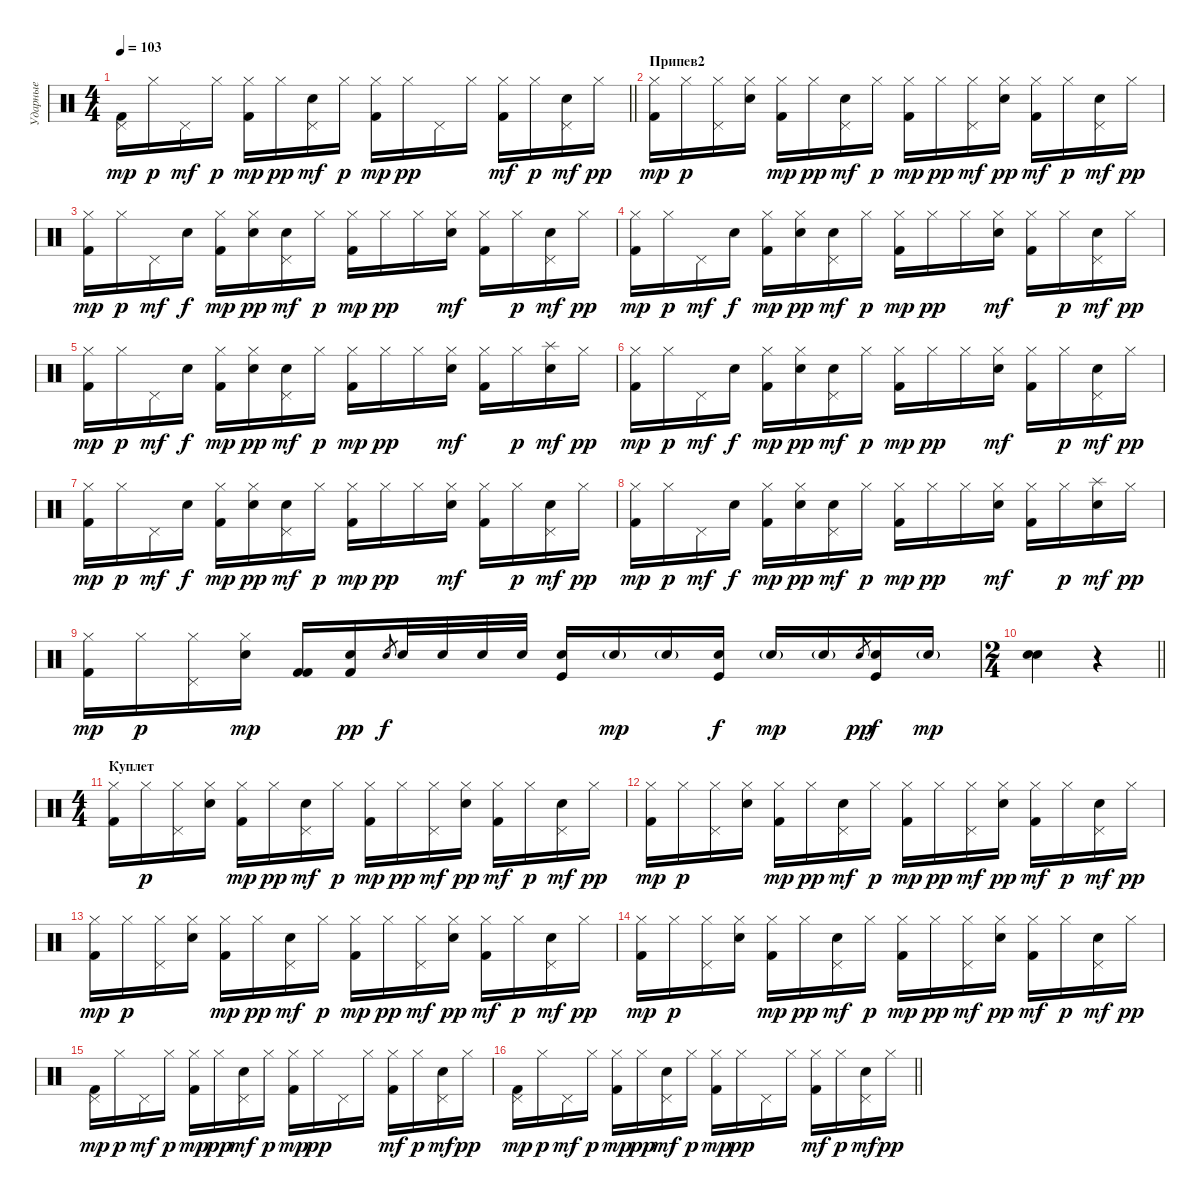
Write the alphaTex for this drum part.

\track ("Ударные" "Ударные") {instrument percussion}
\staff {score}
\articulation defaults
\ts (4 4)
\tempo 103
\clef neutral
\barLineRight lightlight
\ks c
("Pedal Hi-Hat (hit)" "Kick (hit) 2").16{dy mp} "Hi-Hat (closed)".16{dy p} "Pedal Hi-Hat (hit)".16{dy mf} "Hi-Hat (closed)".16{dy p} ("Kick (hit) 2" "Hi-Hat (closed)").16{dy mp} "Hi-Hat (closed)".16{dy pp} ("Electric Snare (hit)" "Pedal Hi-Hat (hit)").16{dy mf} "Hi-Hat (closed)".16{dy p} ("Hi-Hat (closed)" "Kick (hit) 2").16{dy mp} "Hi-Hat (closed)".16{dy pp} "Pedal Hi-Hat (hit)".16 "Hi-Hat (closed)".16 ("Hi-Hat (closed)" "Kick (hit) 2").16{dy mf} "Hi-Hat (closed)".16{dy p} ("Electric Snare (hit)" "Pedal Hi-Hat (hit)").16{dy mf} "Hi-Hat (closed)".16{dy pp} |
\section ("" "Припев2")
("Hi-Hat (closed)" "Kick (hit) 2").16{dy mp} "Hi-Hat (closed)".16{dy p} ("Pedal Hi-Hat (hit)" "Hi-Hat (closed)").16 ("Electric Snare (hit)" "Hi-Hat (closed)").16 ("Kick (hit) 2" "Hi-Hat (closed)").16{dy mp} "Hi-Hat (closed)".16{dy pp} ("Electric Snare (hit)" "Pedal Hi-Hat (hit)").16{dy mf} "Hi-Hat (closed)".16{dy p} ("Hi-Hat (closed)" "Kick (hit) 2").16{dy mp} "Hi-Hat (closed)".16{dy pp} ("Hi-Hat (closed)" "Pedal Hi-Hat (hit)").16{dy mf} ("Electric Snare (hit)" "Hi-Hat (closed)").16{dy pp} ("Hi-Hat (closed)" "Kick (hit) 2").16{dy mf} "Hi-Hat (closed)".16{dy p} ("Electric Snare (hit)" "Pedal Hi-Hat (hit)").16{dy mf} "Hi-Hat (closed)".16{dy pp} |
("Hi-Hat (closed)" "Kick (hit) 2").16{dy mp} "Hi-Hat (closed)".16{dy p} "Pedal Hi-Hat (hit)".16{dy mf} "Electric Snare (hit)".16{dy f} ("Kick (hit) 2" "Hi-Hat (closed)").16{dy mp} ("Electric Snare (hit)" "Hi-Hat (closed)").16{dy pp} ("Electric Snare (hit)" "Pedal Hi-Hat (hit)").16{dy mf} "Hi-Hat (closed)".16{dy p} ("Hi-Hat (closed)" "Kick (hit) 2").16{dy mp} "Hi-Hat (closed)".16{dy pp} "Hi-Hat (closed)".16 ("Electric Snare (hit)" "Hi-Hat (closed)").16{dy mf} ("Hi-Hat (closed)" "Kick (hit) 2").16 "Hi-Hat (closed)".16{dy p} ("Electric Snare (hit)" "Pedal Hi-Hat (hit)").16{dy mf} "Hi-Hat (closed)".16{dy pp} |
("Hi-Hat (closed)" "Kick (hit) 2").16{dy mp} "Hi-Hat (closed)".16{dy p} "Pedal Hi-Hat (hit)".16{dy mf} "Electric Snare (hit)".16{dy f} ("Kick (hit) 2" "Hi-Hat (closed)").16{dy mp} ("Electric Snare (hit)" "Hi-Hat (closed)").16{dy pp} ("Electric Snare (hit)" "Pedal Hi-Hat (hit)").16{dy mf} "Hi-Hat (closed)".16{dy p} ("Hi-Hat (closed)" "Kick (hit) 2").16{dy mp} "Hi-Hat (closed)".16{dy pp} "Hi-Hat (closed)".16 ("Electric Snare (hit)" "Hi-Hat (closed)").16{dy mf} ("Hi-Hat (closed)" "Kick (hit) 2").16 "Hi-Hat (closed)".16{dy p} ("Electric Snare (hit)" "Pedal Hi-Hat (hit)").16{dy mf} "Hi-Hat (closed)".16{dy pp} |
("Hi-Hat (closed)" "Kick (hit) 2").16{dy mp} "Hi-Hat (closed)".16{dy p} "Pedal Hi-Hat (hit)".16{dy mf} "Electric Snare (hit)".16{dy f} ("Kick (hit) 2" "Hi-Hat (closed)").16{dy mp} ("Electric Snare (hit)" "Hi-Hat (closed)").16{dy pp} ("Electric Snare (hit)" "Pedal Hi-Hat (hit)").16{dy mf} "Hi-Hat (closed)".16{dy p} ("Hi-Hat (closed)" "Kick (hit) 2").16{dy mp} "Hi-Hat (closed)".16{dy pp} "Hi-Hat (closed)".16 ("Electric Snare (hit)" "Hi-Hat (closed)").16{dy mf} ("Hi-Hat (closed)" "Kick (hit) 2").16 "Hi-Hat (closed)".16{dy p} ("Electric Snare (hit)" "Splash (hit)").16{dy mf} "Hi-Hat (closed)".16{dy pp} |
("Hi-Hat (closed)" "Kick (hit) 2").16{dy mp} "Hi-Hat (closed)".16{dy p} "Pedal Hi-Hat (hit)".16{dy mf} "Electric Snare (hit)".16{dy f} ("Kick (hit) 2" "Hi-Hat (closed)").16{dy mp} ("Electric Snare (hit)" "Hi-Hat (closed)").16{dy pp} ("Electric Snare (hit)" "Pedal Hi-Hat (hit)").16{dy mf} "Hi-Hat (closed)".16{dy p} ("Hi-Hat (closed)" "Kick (hit) 2").16{dy mp} "Hi-Hat (closed)".16{dy pp} "Hi-Hat (closed)".16 ("Electric Snare (hit)" "Hi-Hat (closed)").16{dy mf} ("Hi-Hat (closed)" "Kick (hit) 2").16 "Hi-Hat (closed)".16{dy p} ("Electric Snare (hit)" "Pedal Hi-Hat (hit)").16{dy mf} "Hi-Hat (closed)".16{dy pp} |
("Hi-Hat (closed)" "Kick (hit) 2").16{dy mp} "Hi-Hat (closed)".16{dy p} "Pedal Hi-Hat (hit)".16{dy mf} "Electric Snare (hit)".16{dy f} ("Kick (hit) 2" "Hi-Hat (closed)").16{dy mp} ("Electric Snare (hit)" "Hi-Hat (closed)").16{dy pp} ("Electric Snare (hit)" "Pedal Hi-Hat (hit)").16{dy mf} "Hi-Hat (closed)".16{dy p} ("Hi-Hat (closed)" "Kick (hit) 2").16{dy mp} "Hi-Hat (closed)".16{dy pp} "Hi-Hat (closed)".16 ("Electric Snare (hit)" "Hi-Hat (closed)").16{dy mf} ("Hi-Hat (closed)" "Kick (hit) 2").16 "Hi-Hat (closed)".16{dy p} ("Electric Snare (hit)" "Pedal Hi-Hat (hit)").16{dy mf} "Hi-Hat (closed)".16{dy pp} |
("Hi-Hat (closed)" "Kick (hit) 2").16{dy mp} "Hi-Hat (closed)".16{dy p} "Pedal Hi-Hat (hit)".16{dy mf} "Electric Snare (hit)".16{dy f} ("Kick (hit) 2" "Hi-Hat (closed)").16{dy mp} ("Electric Snare (hit)" "Hi-Hat (closed)").16{dy pp} ("Electric Snare (hit)" "Pedal Hi-Hat (hit)").16{dy mf} "Hi-Hat (closed)".16{dy p} ("Hi-Hat (closed)" "Kick (hit) 2").16{dy mp} "Hi-Hat (closed)".16{dy pp} "Hi-Hat (closed)".16 ("Electric Snare (hit)" "Hi-Hat (closed)").16{dy mf} ("Hi-Hat (closed)" "Kick (hit) 2").16 "Hi-Hat (closed)".16{dy p} ("Electric Snare (hit)" "Splash (hit)").16{dy mf} "Hi-Hat (closed)".16{dy pp} |
("Hi-Hat (closed)" "Kick (hit) 2").16{dy mp} "Hi-Hat (closed)".16{dy p} ("Pedal Hi-Hat (hit)" "Hi-Hat (closed)").16 ("Electric Snare (hit)" "Hi-Hat (closed)").16{dy mp} ("Kick (hit) 2" "Kick (hit) 2").16 ("Electric Snare (hit)" "Kick (hit) 2").16{dy pp} "Electric Snare (hit)".8{gr dy f} "Electric Snare (hit)".32 "Electric Snare (hit)".32 "Electric Snare (hit)".32 "Electric Snare (hit)".32 ("Electric Snare (hit)" "Kick (hit)").16 "Electric Snare (hit)"{g}.16{dy mp} "Electric Snare (hit)"{g}.16 ("Electric Snare (hit)" "Kick (hit)").16{dy f} "Electric Snare (hit)"{g}.16{dy mp} "Electric Snare (hit)"{g}.16 "Electric Snare (hit)".8{gr dy pp} ("Electric Snare (hit)" "Kick (hit)").16{dy f} "Electric Snare (hit)"{g}.16{dy mp} |
\ts (2 4)
\barLineRight lightlight
("Electric Snare (hit)" "Electric Snare (hit)").4 r.4 |
\ts (4 4)
\section ("" "Куплет")
("Hi-Hat (closed)" "Kick (hit) 2").16 "Hi-Hat (closed)".16{dy p} ("Pedal Hi-Hat (hit)" "Hi-Hat (closed)").16 ("Electric Snare (hit)" "Hi-Hat (closed)").16 ("Kick (hit) 2" "Hi-Hat (closed)").16{dy mp} "Hi-Hat (closed)".16{dy pp} ("Electric Snare (hit)" "Pedal Hi-Hat (hit)").16{dy mf} "Hi-Hat (closed)".16{dy p} ("Hi-Hat (closed)" "Kick (hit) 2").16{dy mp} "Hi-Hat (closed)".16{dy pp} ("Hi-Hat (closed)" "Pedal Hi-Hat (hit)").16{dy mf} ("Electric Snare (hit)" "Hi-Hat (closed)").16{dy pp} ("Hi-Hat (closed)" "Kick (hit) 2").16{dy mf} "Hi-Hat (closed)".16{dy p} ("Electric Snare (hit)" "Pedal Hi-Hat (hit)").16{dy mf} "Hi-Hat (closed)".16{dy pp} |
("Hi-Hat (closed)" "Kick (hit) 2").16{dy mp} "Hi-Hat (closed)".16{dy p} ("Pedal Hi-Hat (hit)" "Hi-Hat (closed)").16 ("Electric Snare (hit)" "Hi-Hat (closed)").16 ("Kick (hit) 2" "Hi-Hat (closed)").16{dy mp} "Hi-Hat (closed)".16{dy pp} ("Electric Snare (hit)" "Pedal Hi-Hat (hit)").16{dy mf} "Hi-Hat (closed)".16{dy p} ("Hi-Hat (closed)" "Kick (hit) 2").16{dy mp} "Hi-Hat (closed)".16{dy pp} ("Hi-Hat (closed)" "Pedal Hi-Hat (hit)").16{dy mf} ("Electric Snare (hit)" "Hi-Hat (closed)").16{dy pp} ("Hi-Hat (closed)" "Kick (hit) 2").16{dy mf} "Hi-Hat (closed)".16{dy p} ("Electric Snare (hit)" "Pedal Hi-Hat (hit)").16{dy mf} "Hi-Hat (closed)".16{dy pp} |
("Hi-Hat (closed)" "Kick (hit) 2").16{dy mp} "Hi-Hat (closed)".16{dy p} ("Pedal Hi-Hat (hit)" "Hi-Hat (closed)").16 ("Electric Snare (hit)" "Hi-Hat (closed)").16 ("Kick (hit) 2" "Hi-Hat (closed)").16{dy mp} "Hi-Hat (closed)".16{dy pp} ("Electric Snare (hit)" "Pedal Hi-Hat (hit)").16{dy mf} "Hi-Hat (closed)".16{dy p} ("Hi-Hat (closed)" "Kick (hit) 2").16{dy mp} "Hi-Hat (closed)".16{dy pp} ("Hi-Hat (closed)" "Pedal Hi-Hat (hit)").16{dy mf} ("Electric Snare (hit)" "Hi-Hat (closed)").16{dy pp} ("Hi-Hat (closed)" "Kick (hit) 2").16{dy mf} "Hi-Hat (closed)".16{dy p} ("Electric Snare (hit)" "Pedal Hi-Hat (hit)").16{dy mf} "Hi-Hat (closed)".16{dy pp} |
("Hi-Hat (closed)" "Kick (hit) 2").16{dy mp} "Hi-Hat (closed)".16{dy p} ("Pedal Hi-Hat (hit)" "Hi-Hat (closed)").16 ("Electric Snare (hit)" "Hi-Hat (closed)").16 ("Kick (hit) 2" "Hi-Hat (closed)").16{dy mp} "Hi-Hat (closed)".16{dy pp} ("Electric Snare (hit)" "Pedal Hi-Hat (hit)").16{dy mf} "Hi-Hat (closed)".16{dy p} ("Hi-Hat (closed)" "Kick (hit) 2").16{dy mp} "Hi-Hat (closed)".16{dy pp} ("Hi-Hat (closed)" "Pedal Hi-Hat (hit)").16{dy mf} ("Electric Snare (hit)" "Hi-Hat (closed)").16{dy pp} ("Hi-Hat (closed)" "Kick (hit) 2").16{dy mf} "Hi-Hat (closed)".16{dy p} ("Electric Snare (hit)" "Pedal Hi-Hat (hit)").16{dy mf} "Hi-Hat (closed)".16{dy pp} |
("Pedal Hi-Hat (hit)" "Kick (hit) 2").16{dy mp} "Hi-Hat (closed)".16{dy p} "Pedal Hi-Hat (hit)".16{dy mf} "Hi-Hat (closed)".16{dy p} ("Kick (hit) 2" "Hi-Hat (closed)").16{dy mp} "Hi-Hat (closed)".16{dy pp} ("Electric Snare (hit)" "Pedal Hi-Hat (hit)").16{dy mf} "Hi-Hat (closed)".16{dy p} ("Hi-Hat (closed)" "Kick (hit) 2").16{dy mp} "Hi-Hat (closed)".16{dy pp} "Pedal Hi-Hat (hit)".16 "Hi-Hat (closed)".16 ("Hi-Hat (closed)" "Kick (hit) 2").16{dy mf} "Hi-Hat (closed)".16{dy p} ("Electric Snare (hit)" "Pedal Hi-Hat (hit)").16{dy mf} "Hi-Hat (closed)".16{dy pp} |
\barLineRight lightlight
("Pedal Hi-Hat (hit)" "Kick (hit) 2").16{dy mp} "Hi-Hat (closed)".16{dy p} "Pedal Hi-Hat (hit)".16{dy mf} "Hi-Hat (closed)".16{dy p} ("Kick (hit) 2" "Hi-Hat (closed)").16{dy mp} "Hi-Hat (closed)".16{dy pp} ("Electric Snare (hit)" "Pedal Hi-Hat (hit)").16{dy mf} "Hi-Hat (closed)".16{dy p} ("Hi-Hat (closed)" "Kick (hit) 2").16{dy mp} "Hi-Hat (closed)".16{dy pp} "Pedal Hi-Hat (hit)".16 "Hi-Hat (closed)".16 ("Hi-Hat (closed)" "Kick (hit) 2").16{dy mf} "Hi-Hat (closed)".16{dy p} ("Electric Snare (hit)" "Pedal Hi-Hat (hit)").16{dy mf} "Hi-Hat (closed)".16{dy pp}
